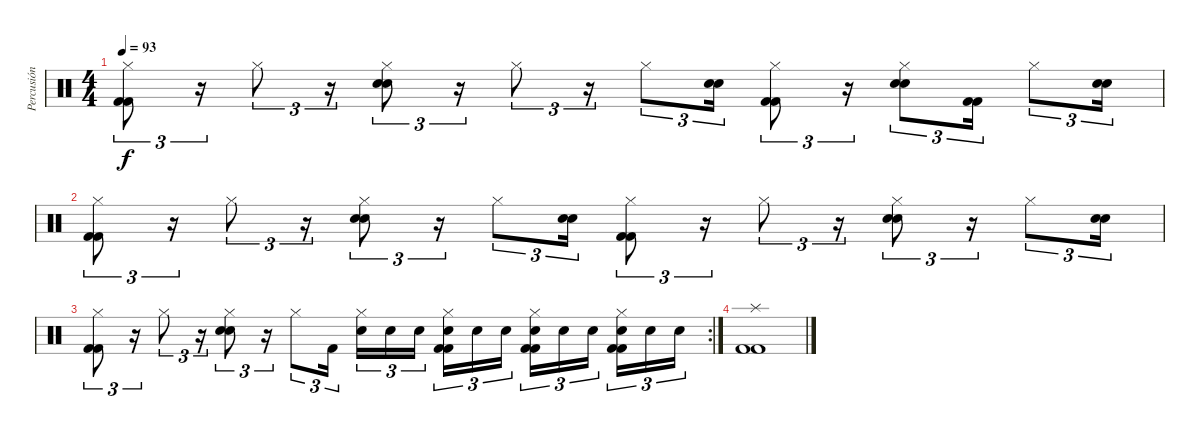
\track ("Percusión" "Percusión") {instrument percussion}
\staff {score}
\articulation defaults
\ts (4 4)
\tempo 93
\clef neutral
\ks c
("Hi-Hat (closed)" "Kick (hit) 2" "Kick (hit) 2").8{tu (3 2) dy f} r.16{tu (3 2)} "Hi-Hat (closed)".8{tu (3 2)} r.16{tu (3 2)} ("Hi-Hat (closed)" "Electric Snare (hit)" "Electric Snare (hit)").8{tu (3 2)} r.16{tu (3 2)} "Hi-Hat (closed)".8{tu (3 2)} r.16{tu (3 2)} "Hi-Hat (closed)".8{tu (3 2)} ("Electric Snare (hit)" "Electric Snare (hit)").16{tu (3 2)} ("Hi-Hat (closed)" "Kick (hit) 2" "Kick (hit) 2").8{tu (3 2)} r.16{tu (3 2)} ("Hi-Hat (closed)" "Electric Snare (hit)" "Electric Snare (hit)").8{tu (3 2)} ("Kick (hit) 2" "Kick (hit) 2").16{tu (3 2)} "Hi-Hat (closed)".8{tu (3 2)} ("Electric Snare (hit)" "Electric Snare (hit)").16{tu (3 2)} |
("Hi-Hat (closed)" "Kick (hit) 2" "Kick (hit) 2").8{tu (3 2)} r.16{tu (3 2)} "Hi-Hat (closed)".8{tu (3 2)} r.16{tu (3 2)} ("Hi-Hat (closed)" "Electric Snare (hit)" "Electric Snare (hit)").8{tu (3 2)} r.16{tu (3 2)} "Hi-Hat (closed)".8{tu (3 2)} ("Electric Snare (hit)" "Electric Snare (hit)").16{tu (3 2)} ("Hi-Hat (closed)" "Kick (hit) 2" "Kick (hit) 2").8{tu (3 2)} r.16{tu (3 2)} "Hi-Hat (closed)".8{tu (3 2)} r.16{tu (3 2)} ("Hi-Hat (closed)" "Electric Snare (hit)" "Electric Snare (hit)").8{tu (3 2)} r.16{tu (3 2)} "Hi-Hat (closed)".8{tu (3 2)} ("Electric Snare (hit)" "Electric Snare (hit)").16{tu (3 2)} |
\rc 2
("Hi-Hat (closed)" "Kick (hit) 2" "Kick (hit) 2").8{tu (3 2)} r.16{tu (3 2)} "Hi-Hat (closed)".8{tu (3 2)} r.16{tu (3 2)} ("Hi-Hat (closed)" "Electric Snare (hit)" "Electric Snare (hit)").8{tu (3 2)} r.16{tu (3 2)} "Hi-Hat (closed)".8{tu (3 2)} "Kick (hit) 2".16{tu (3 2)} ("Hi-Hat (closed)" "Electric Snare (hit)").16{tu (3 2)} "Electric Snare (hit)".16{tu (3 2)} "Electric Snare (hit)".16{tu (3 2)} ("Hi-Hat (closed)" "Electric Snare (hit)" "Kick (hit) 2" "Kick (hit) 2").16{tu (3 2)} "Electric Snare (hit)".16{tu (3 2)} "Electric Snare (hit)".16{tu (3 2)} ("Hi-Hat (closed)" "Electric Snare (hit)" "Kick (hit) 2" "Kick (hit) 2").16{tu (3 2)} "Electric Snare (hit)".16{tu (3 2)} "Electric Snare (hit)".16{tu (3 2)} ("Hi-Hat (closed)" "Electric Snare (hit)" "Kick (hit) 2" "Kick (hit) 2").16{tu (3 2)} "Electric Snare (hit)".16{tu (3 2)} "Electric Snare (hit)".16{tu (3 2)} |
("Splash (hit)" "Kick (hit) 2" "Kick (hit) 2").1
